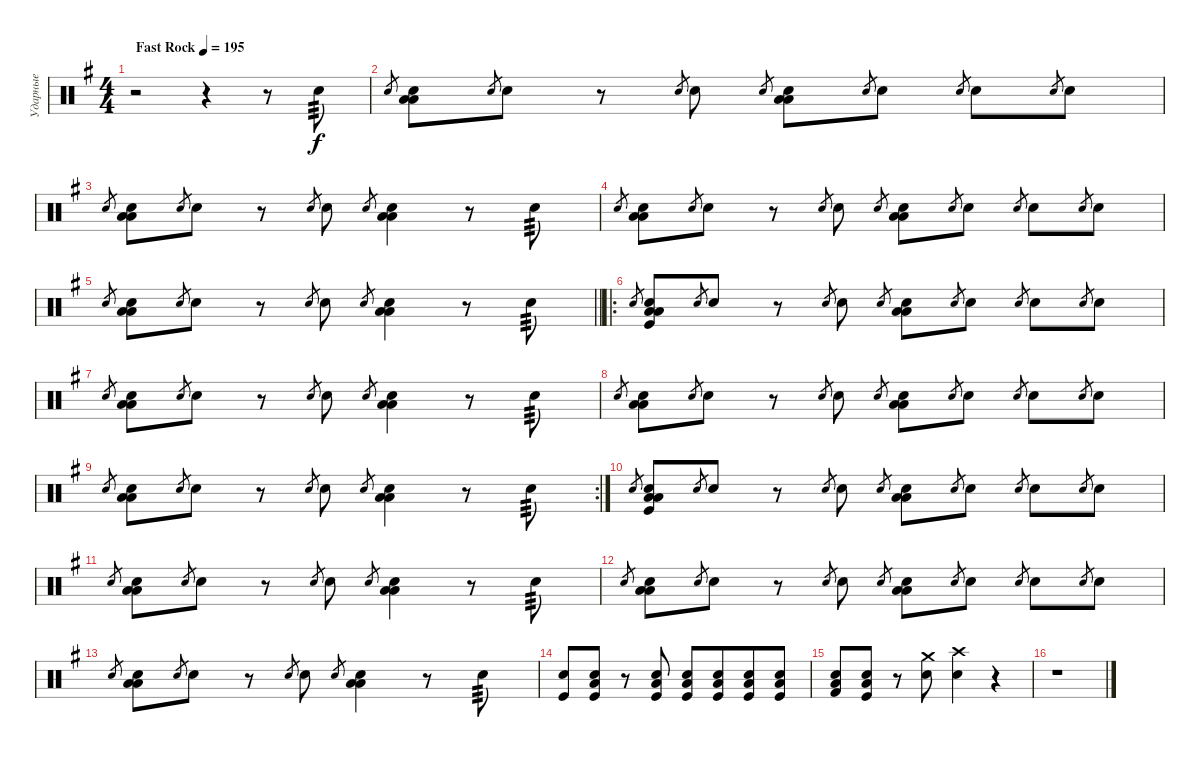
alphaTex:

\track ("Ударные" "Ударные") {instrument percussion}
\staff {score}
\articulation defaults
\ts (4 4)
\section ("" "")
\tempo (195 "Fast Rock")
\tempo 144
\tempo (195 "Fast Rock")
\clef neutral
\ks eminor
r.2{dy f} r.4 r.8 "Snare (hit) 2".8{tp 3} |
"Snare (hit) 2".8{gr} ("Low Tom (hit)" "Low Floor Tom (hit)" "Snare (hit) 2").8 "Snare (hit) 2".8{gr} "Snare (hit) 2".8 r.8 "Snare (hit) 2".8{gr} "Snare (hit) 2".8 "Snare (hit) 2".8{gr} ("Snare (hit) 2" "Low Tom (hit)" "Low Floor Tom (hit)").8 "Snare (hit) 2".8{gr} "Snare (hit) 2".8 "Snare (hit) 2".8{gr beam merge} "Snare (hit) 2".8 "Snare (hit) 2".8{gr} "Snare (hit) 2".8 |
"Snare (hit) 2".8{gr beam merge} ("Low Tom (hit)" "Low Floor Tom (hit)" "Snare (hit) 2").8 "Snare (hit) 2".8{gr} "Snare (hit) 2".8 r.8 "Snare (hit) 2".8{gr} "Snare (hit) 2".8 "Snare (hit) 2".8{gr} ("Low Tom (hit)" "Low Floor Tom (hit)" "Snare (hit) 2").4 r.8 "Snare (hit) 2".8{tp 3} |
"Snare (hit) 2".8{gr} ("Low Tom (hit)" "Low Floor Tom (hit)" "Snare (hit) 2").8 "Snare (hit) 2".8{gr} "Snare (hit) 2".8 r.8 "Snare (hit) 2".8{gr} "Snare (hit) 2".8 "Snare (hit) 2".8{gr} ("Snare (hit) 2" "Low Tom (hit)" "Low Floor Tom (hit)").8 "Snare (hit) 2".8{gr} "Snare (hit) 2".8 "Snare (hit) 2".8{gr beam merge} "Snare (hit) 2".8 "Snare (hit) 2".8{gr} "Snare (hit) 2".8 |
\barLineRight lightlight "Snare (hit) 2".8{gr beam merge}
("Low Tom (hit)" "Low Floor Tom (hit)" "Snare (hit) 2").8 "Snare (hit) 2".8{gr} "Snare (hit) 2".8 r.8 "Snare (hit) 2".8{gr} "Snare (hit) 2".8 "Snare (hit) 2".8{gr} ("Low Tom (hit)" "Low Floor Tom (hit)" "Snare (hit) 2").4 r.8 "Snare (hit) 2".8{tp 3} |
\ro
\section ("" "")
"Snare (hit) 2".8{gr} ("Low Tom (hit)" "Low Floor Tom (hit)" "Snare (hit) 2" "Kick (hit)").8 "Snare (hit) 2".8{gr} "Snare (hit) 2".8 r.8 "Snare (hit) 2".8{gr} "Snare (hit) 2".8 "Snare (hit) 2".8{gr} ("Snare (hit) 2" "Low Tom (hit)" "Low Floor Tom (hit)").8 "Snare (hit) 2".8{gr} "Snare (hit) 2".8 "Snare (hit) 2".8{gr beam merge} "Snare (hit) 2".8 "Snare (hit) 2".8{gr} "Snare (hit) 2".8 |
"Snare (hit) 2".8{gr beam merge} ("Low Tom (hit)" "Low Floor Tom (hit)" "Snare (hit) 2").8 "Snare (hit) 2".8{gr} "Snare (hit) 2".8 r.8 "Snare (hit) 2".8{gr} "Snare (hit) 2".8 "Snare (hit) 2".8{gr} ("Low Tom (hit)" "Low Floor Tom (hit)" "Snare (hit) 2").4 r.8 "Snare (hit) 2".8{tp 3} |
"Snare (hit) 2".8{gr} ("Low Tom (hit)" "Low Floor Tom (hit)" "Snare (hit) 2").8 "Snare (hit) 2".8{gr} "Snare (hit) 2".8 r.8 "Snare (hit) 2".8{gr} "Snare (hit) 2".8 "Snare (hit) 2".8{gr} ("Snare (hit) 2" "Low Tom (hit)" "Low Floor Tom (hit)").8 "Snare (hit) 2".8{gr} "Snare (hit) 2".8 "Snare (hit) 2".8{gr beam merge} "Snare (hit) 2".8 "Snare (hit) 2".8{gr} "Snare (hit) 2".8 |
\rc 2 "Snare (hit) 2".8{gr beam merge}
("Low Tom (hit)" "Low Floor Tom (hit)" "Snare (hit) 2").8 "Snare (hit) 2".8{gr} "Snare (hit) 2".8 r.8 "Snare (hit) 2".8{gr} "Snare (hit) 2".8 "Snare (hit) 2".8{gr} ("Low Tom (hit)" "Low Floor Tom (hit)" "Snare (hit) 2").4 r.8 "Snare (hit) 2".8{tp 3} |
"Snare (hit) 2".8{gr} ("Low Tom (hit)" "Low Floor Tom (hit)" "Snare (hit) 2" "Kick (hit)").8 "Snare (hit) 2".8{gr} "Snare (hit) 2".8 r.8 "Snare (hit) 2".8{gr} "Snare (hit) 2".8 "Snare (hit) 2".8{gr} ("Snare (hit) 2" "Low Tom (hit)" "Low Floor Tom (hit)").8 "Snare (hit) 2".8{gr} "Snare (hit) 2".8 "Snare (hit) 2".8{gr beam merge} "Snare (hit) 2".8 "Snare (hit) 2".8{gr} "Snare (hit) 2".8 |
"Snare (hit) 2".8{gr beam merge} ("Low Tom (hit)" "Low Floor Tom (hit)" "Snare (hit) 2").8 "Snare (hit) 2".8{gr} "Snare (hit) 2".8 r.8 "Snare (hit) 2".8{gr} "Snare (hit) 2".8 "Snare (hit) 2".8{gr} ("Low Tom (hit)" "Low Floor Tom (hit)" "Snare (hit) 2").4 r.8 "Snare (hit) 2".8{tp 3} |
"Snare (hit) 2".8{gr} ("Low Tom (hit)" "Low Floor Tom (hit)" "Snare (hit) 2").8 "Snare (hit) 2".8{gr} "Snare (hit) 2".8 r.8 "Snare (hit) 2".8{gr} "Snare (hit) 2".8 "Snare (hit) 2".8{gr} ("Snare (hit) 2" "Low Tom (hit)" "Low Floor Tom (hit)").8 "Snare (hit) 2".8{gr} "Snare (hit) 2".8 "Snare (hit) 2".8{gr beam merge} "Snare (hit) 2".8 "Snare (hit) 2".8{gr} "Snare (hit) 2".8 |
"Snare (hit) 2".8{gr beam merge} ("Low Tom (hit)" "Low Floor Tom (hit)" "Snare (hit) 2").8 "Snare (hit) 2".8{gr} "Snare (hit) 2".8 r.8 "Snare (hit) 2".8{gr} "Snare (hit) 2".8 "Snare (hit) 2".8{gr} ("Low Tom (hit)" "Low Floor Tom (hit)" "Snare (hit) 2").4 r.8 "Snare (hit) 2".8{tp 3} |
("Kick (hit)" "Snare (hit) 2").8 ("Kick (hit)" "Snare (hit) 2" "Low Floor Tom (hit)").8 r.8 ("Kick (hit)" "Snare (hit) 2" "Low Floor Tom (hit)").8 ("Kick (hit)" "Snare (hit) 2" "Low Floor Tom (hit)").8 ("Kick (hit)" "Snare (hit) 2" "Low Floor Tom (hit)").8{beam merge} ("Kick (hit)" "Snare (hit) 2" "Low Floor Tom (hit)").8 ("Kick (hit)" "Snare (hit) 2" "Low Floor Tom (hit)").8 |
("Kick (hit) 2" "Snare (hit) 2" "Low Tom (hit)").8 ("Snare (hit) 2" "Kick (hit)" "Low Tom (hit)").8 r.8 ("Snare (hit) 2" "Crash medium (hit)").8 ("Snare (hit) 2" "Crash high (hit)").4 r.4 |
r.1
